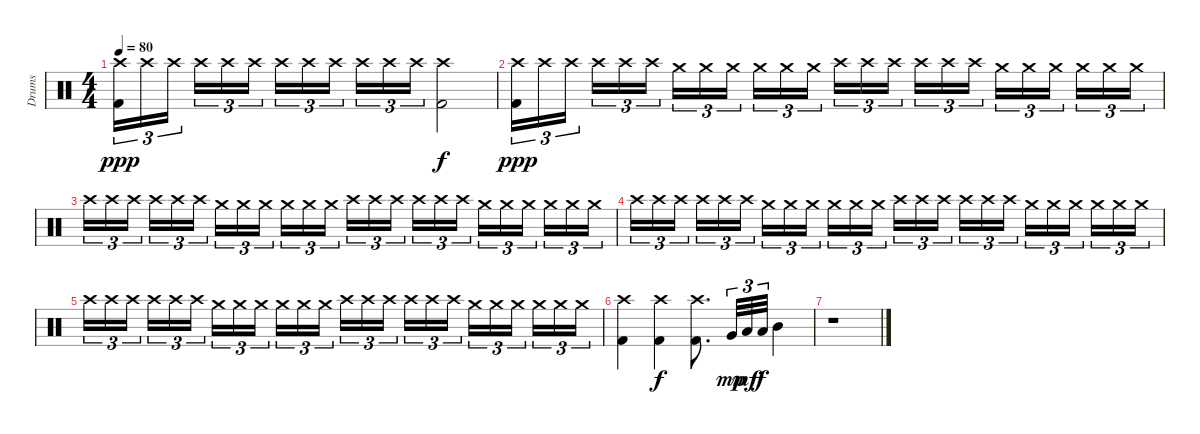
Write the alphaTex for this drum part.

\track ("Drums" "Drums") {instrument percussion}
\staff {score}
\articulation defaults
\ts (4 4)
\tempo 80
\clef neutral
\ks c
("Crash high (hit)" "Kick (hit) 2").16{tu (3 2) dy ppp} "Crash high (hit)".16{tu (3 2)} "Crash high (hit)".16{tu (3 2) beam splitsecondary} "Crash high (hit)".16{tu (3 2)} "Crash high (hit)".16{tu (3 2)} "Crash high (hit)".16{tu (3 2)} "Crash high (hit)".16{tu (3 2)} "Crash high (hit)".16{tu (3 2)} "Crash high (hit)".16{tu (3 2) beam splitsecondary} "Crash high (hit)".16{tu (3 2)} "Crash high (hit)".16{tu (3 2)} "Crash high (hit)".16{tu (3 2)} ("Crash high (hit)" "Kick (hit) 2").2{dy f} |
("Crash high (hit)" "Kick (hit) 2").16{tu (3 2) dy ppp} "Crash high (hit)".16{tu (3 2)} "Crash high (hit)".16{tu (3 2) beam splitsecondary} "Crash high (hit)".16{tu (3 2)} "Crash high (hit)".16{tu (3 2)} "Crash high (hit)".16{tu (3 2)} "Crash medium (hit)".16{tu (3 2)} "Crash medium (hit)".16{tu (3 2)} "Crash medium (hit)".16{tu (3 2) beam splitsecondary} "Crash medium (hit)".16{tu (3 2)} "Crash medium (hit)".16{tu (3 2)} "Crash medium (hit)".16{tu (3 2)} "Crash high (hit)".16{tu (3 2)} "Crash high (hit)".16{tu (3 2)} "Crash high (hit)".16{tu (3 2) beam splitsecondary} "Crash high (hit)".16{tu (3 2)} "Crash high (hit)".16{tu (3 2)} "Crash high (hit)".16{tu (3 2)} "Crash medium (hit)".16{tu (3 2)} "Crash medium (hit)".16{tu (3 2)} "Crash medium (hit)".16{tu (3 2) beam splitsecondary} "Crash medium (hit)".16{tu (3 2)} "Crash medium (hit)".16{tu (3 2)} "Crash medium (hit)".16{tu (3 2)} |
"Crash high (hit)".16{tu (3 2)} "Crash high (hit)".16{tu (3 2)} "Crash high (hit)".16{tu (3 2) beam splitsecondary} "Crash high (hit)".16{tu (3 2)} "Crash high (hit)".16{tu (3 2)} "Crash high (hit)".16{tu (3 2)} "Crash medium (hit)".16{tu (3 2)} "Crash medium (hit)".16{tu (3 2)} "Crash medium (hit)".16{tu (3 2) beam splitsecondary} "Crash medium (hit)".16{tu (3 2)} "Crash medium (hit)".16{tu (3 2)} "Crash medium (hit)".16{tu (3 2)} "Crash high (hit)".16{tu (3 2)} "Crash high (hit)".16{tu (3 2)} "Crash high (hit)".16{tu (3 2) beam splitsecondary} "Crash high (hit)".16{tu (3 2)} "Crash high (hit)".16{tu (3 2)} "Crash high (hit)".16{tu (3 2)} "Crash medium (hit)".16{tu (3 2)} "Crash medium (hit)".16{tu (3 2)} "Crash medium (hit)".16{tu (3 2) beam splitsecondary} "Crash medium (hit)".16{tu (3 2)} "Crash medium (hit)".16{tu (3 2)} "Crash medium (hit)".16{tu (3 2)} |
"Crash high (hit)".16{tu (3 2)} "Crash high (hit)".16{tu (3 2)} "Crash high (hit)".16{tu (3 2) beam splitsecondary} "Crash high (hit)".16{tu (3 2)} "Crash high (hit)".16{tu (3 2)} "Crash high (hit)".16{tu (3 2)} "Crash medium (hit)".16{tu (3 2)} "Crash medium (hit)".16{tu (3 2)} "Crash medium (hit)".16{tu (3 2) beam splitsecondary} "Crash medium (hit)".16{tu (3 2)} "Crash medium (hit)".16{tu (3 2)} "Crash medium (hit)".16{tu (3 2)} "Crash high (hit)".16{tu (3 2)} "Crash high (hit)".16{tu (3 2)} "Crash high (hit)".16{tu (3 2) beam splitsecondary} "Crash high (hit)".16{tu (3 2)} "Crash high (hit)".16{tu (3 2)} "Crash high (hit)".16{tu (3 2)} "Crash medium (hit)".16{tu (3 2)} "Crash medium (hit)".16{tu (3 2)} "Crash medium (hit)".16{tu (3 2) beam splitsecondary} "Crash medium (hit)".16{tu (3 2)} "Crash medium (hit)".16{tu (3 2)} "Crash medium (hit)".16{tu (3 2)} |
"Crash high (hit)".16{tu (3 2)} "Crash high (hit)".16{tu (3 2)} "Crash high (hit)".16{tu (3 2) beam splitsecondary} "Crash high (hit)".16{tu (3 2)} "Crash high (hit)".16{tu (3 2)} "Crash high (hit)".16{tu (3 2)} "Crash medium (hit)".16{tu (3 2)} "Crash medium (hit)".16{tu (3 2)} "Crash medium (hit)".16{tu (3 2) beam splitsecondary} "Crash medium (hit)".16{tu (3 2)} "Crash medium (hit)".16{tu (3 2)} "Crash medium (hit)".16{tu (3 2)} "Crash high (hit)".16{tu (3 2)} "Crash high (hit)".16{tu (3 2)} "Crash high (hit)".16{tu (3 2) beam splitsecondary} "Crash high (hit)".16{tu (3 2)} "Crash high (hit)".16{tu (3 2)} "Crash high (hit)".16{tu (3 2)} "Crash medium (hit)".16{tu (3 2)} "Crash medium (hit)".16{tu (3 2)} "Crash medium (hit)".16{tu (3 2) beam splitsecondary} "Crash medium (hit)".16{tu (3 2)} "Crash medium (hit)".16{tu (3 2)} "Crash medium (hit)".16{tu (3 2)} |
("Crash high (hit)" "Kick (hit) 2").4 ("Crash high (hit)" "Kick (hit) 2").4{dy f} ("Crash high (hit)" "Kick (hit) 2").8{d} "Very Low Tom (hit)".32{tu (3 2) dy mp} "Low Tom (hit)".32{tu (3 2) dy mf} "Low Tom (hit)".32{tu (3 2) dy f} "Mid Tom (hit)".4 |
r.1
